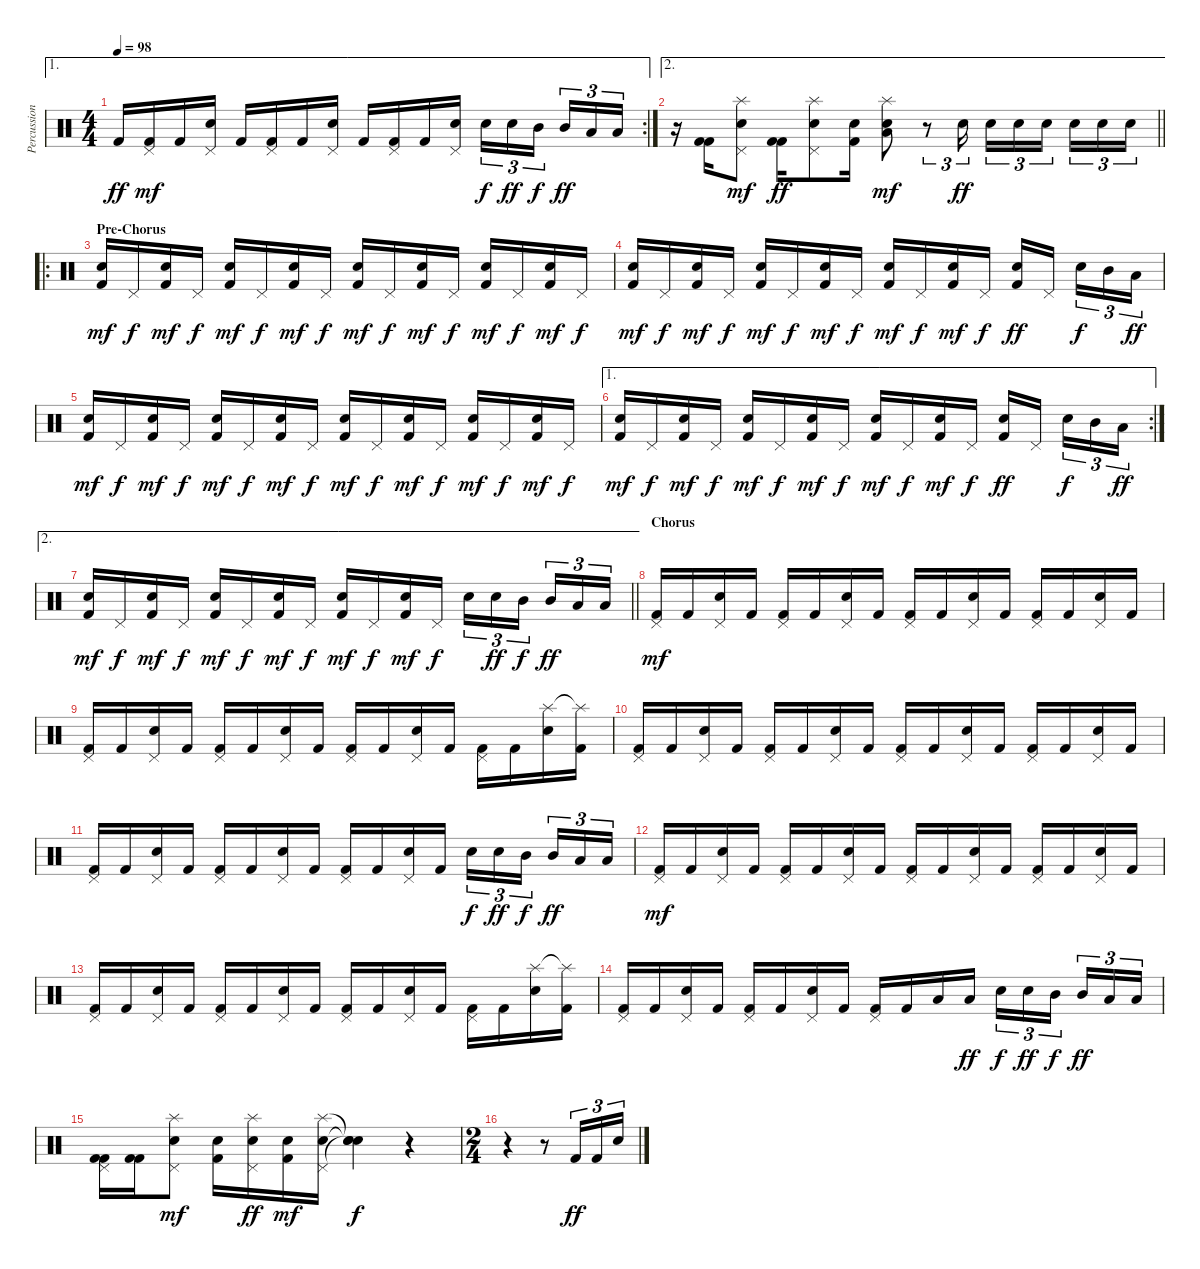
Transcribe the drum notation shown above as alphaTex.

\track ("Percussion" "Percussion") {instrument percussion}
\staff {score}
\articulation defaults
\ae 1
\rc 2
\ts (4 4)
\tempo 98
\clef neutral
\ks c "Kick (hit) 2".16{dy ff}
("Pedal Hi-Hat (hit)" "Kick (hit) 2").16{dy mf} "Kick (hit) 2".16 ("Pedal Hi-Hat (hit)" "Snare (hit) 2").16 "Kick (hit) 2".16 ("Pedal Hi-Hat (hit)" "Kick (hit) 2").16 "Kick (hit) 2".16 ("Pedal Hi-Hat (hit)" "Snare (hit) 2").16 "Kick (hit) 2".16 ("Pedal Hi-Hat (hit)" "Kick (hit) 2").16 "Kick (hit) 2".16 ("Pedal Hi-Hat (hit)" "Snare (hit) 2").16 "Snare (hit) 2".16{tu (3 2) dy f} "Snare (hit) 2".16{tu (3 2) dy ff} "Mid Tom (hit)".16{tu (3 2) dy f beam splitsecondary} "Mid Tom (hit)".16{tu (3 2) dy ff} "Low Tom (hit)".16{tu (3 2)} "Low Tom (hit)".16{tu (3 2)} |
\ae 2
\barLineRight lightlight
r.16 ("Kick (hit) 2" "Kick (hit) 2").16 ("Splash (hit)" "Pedal Hi-Hat (hit)" "Snare (hit) 2").8{dy mf} ("Kick (hit) 2" "Kick (hit) 2").16{dy ff} ("Splash (hit)" "Pedal Hi-Hat (hit)" "Snare (hit) 2").8 ("Kick (hit) 2" "Snare (hit) 2").16 ("Splash (hit)" "Low Floor Tom (hit)" "Snare (hit) 2").8{dy mf} r.8{tu (3 2)} "Snare (hit) 2".16{tu (3 2) dy ff} "Snare (hit) 2".16{tu (3 2)} "Snare (hit) 2".16{tu (3 2)} "Snare (hit) 2".16{tu (3 2) beam splitsecondary} "Snare (hit) 2".16{tu (3 2)} "Snare (hit) 2".16{tu (3 2)} "Snare (hit) 2".16{tu (3 2)} |
\ro
\section ("" "Pre-Chorus")
("Snare (hit) 2" "Kick (hit) 2").16{dy mf} "Pedal Hi-Hat (hit)".16{dy f} ("Snare (hit) 2" "Kick (hit) 2").16{dy mf} "Pedal Hi-Hat (hit)".16{dy f} ("Snare (hit) 2" "Kick (hit) 2").16{dy mf} "Pedal Hi-Hat (hit)".16{dy f} ("Snare (hit) 2" "Kick (hit) 2").16{dy mf} "Pedal Hi-Hat (hit)".16{dy f} ("Snare (hit) 2" "Kick (hit) 2").16{dy mf} "Pedal Hi-Hat (hit)".16{dy f} ("Snare (hit) 2" "Kick (hit) 2").16{dy mf} "Pedal Hi-Hat (hit)".16{dy f} ("Snare (hit) 2" "Kick (hit) 2").16{dy mf} "Pedal Hi-Hat (hit)".16{dy f} ("Snare (hit) 2" "Kick (hit) 2").16{dy mf} "Pedal Hi-Hat (hit)".16{dy f} |
("Snare (hit) 2" "Kick (hit) 2").16{dy mf} "Pedal Hi-Hat (hit)".16{dy f} ("Snare (hit) 2" "Kick (hit) 2").16{dy mf} "Pedal Hi-Hat (hit)".16{dy f} ("Snare (hit) 2" "Kick (hit) 2").16{dy mf} "Pedal Hi-Hat (hit)".16{dy f} ("Snare (hit) 2" "Kick (hit) 2").16{dy mf} "Pedal Hi-Hat (hit)".16{dy f} ("Snare (hit) 2" "Kick (hit) 2").16{dy mf} "Pedal Hi-Hat (hit)".16{dy f} ("Snare (hit) 2" "Kick (hit) 2").16{dy mf} "Pedal Hi-Hat (hit)".16{dy f} ("Snare (hit) 2" "Kick (hit) 2").16{dy ff} "Pedal Hi-Hat (hit)".16{beam splitsecondary} "Snare (hit) 2".16{tu (3 2) dy f} "Mid Tom (hit)".16{tu (3 2)} "Low Tom (hit)".16{tu (3 2) dy ff} |
("Snare (hit) 2" "Kick (hit) 2").16{dy mf} "Pedal Hi-Hat (hit)".16{dy f} ("Snare (hit) 2" "Kick (hit) 2").16{dy mf} "Pedal Hi-Hat (hit)".16{dy f} ("Snare (hit) 2" "Kick (hit) 2").16{dy mf} "Pedal Hi-Hat (hit)".16{dy f} ("Snare (hit) 2" "Kick (hit) 2").16{dy mf} "Pedal Hi-Hat (hit)".16{dy f} ("Snare (hit) 2" "Kick (hit) 2").16{dy mf} "Pedal Hi-Hat (hit)".16{dy f} ("Snare (hit) 2" "Kick (hit) 2").16{dy mf} "Pedal Hi-Hat (hit)".16{dy f} ("Snare (hit) 2" "Kick (hit) 2").16{dy mf} "Pedal Hi-Hat (hit)".16{dy f} ("Snare (hit) 2" "Kick (hit) 2").16{dy mf} "Pedal Hi-Hat (hit)".16{dy f} |
\ae 1
\rc 2
("Snare (hit) 2" "Kick (hit) 2").16{dy mf} "Pedal Hi-Hat (hit)".16{dy f} ("Snare (hit) 2" "Kick (hit) 2").16{dy mf} "Pedal Hi-Hat (hit)".16{dy f} ("Snare (hit) 2" "Kick (hit) 2").16{dy mf} "Pedal Hi-Hat (hit)".16{dy f} ("Snare (hit) 2" "Kick (hit) 2").16{dy mf} "Pedal Hi-Hat (hit)".16{dy f} ("Snare (hit) 2" "Kick (hit) 2").16{dy mf} "Pedal Hi-Hat (hit)".16{dy f} ("Snare (hit) 2" "Kick (hit) 2").16{dy mf} "Pedal Hi-Hat (hit)".16{dy f} ("Snare (hit) 2" "Kick (hit) 2").16{dy ff} "Pedal Hi-Hat (hit)".16{beam splitsecondary} "Snare (hit) 2".16{tu (3 2) dy f} "Mid Tom (hit)".16{tu (3 2)} "Low Tom (hit)".16{tu (3 2) dy ff} |
\ae 2
\barLineRight lightlight
("Snare (hit) 2" "Kick (hit) 2").16{dy mf} "Pedal Hi-Hat (hit)".16{dy f} ("Snare (hit) 2" "Kick (hit) 2").16{dy mf} "Pedal Hi-Hat (hit)".16{dy f} ("Snare (hit) 2" "Kick (hit) 2").16{dy mf} "Pedal Hi-Hat (hit)".16{dy f} ("Snare (hit) 2" "Kick (hit) 2").16{dy mf} "Pedal Hi-Hat (hit)".16{dy f} ("Snare (hit) 2" "Kick (hit) 2").16{dy mf} "Pedal Hi-Hat (hit)".16{dy f} ("Snare (hit) 2" "Kick (hit) 2").16{dy mf} "Pedal Hi-Hat (hit)".16{dy f} "Snare (hit) 2".16{tu (3 2)} "Snare (hit) 2".16{tu (3 2) dy ff} "Mid Tom (hit)".16{tu (3 2) dy f beam splitsecondary} "Mid Tom (hit)".16{tu (3 2) dy ff} "Low Tom (hit)".16{tu (3 2)} "Low Tom (hit)".16{tu (3 2)} |
\section ("" "Chorus")
("Pedal Hi-Hat (hit)" "Kick (hit) 2").16{dy mf} "Kick (hit) 2".16 ("Pedal Hi-Hat (hit)" "Snare (hit) 2").16 "Kick (hit) 2".16 ("Pedal Hi-Hat (hit)" "Kick (hit) 2").16 "Kick (hit) 2".16 ("Pedal Hi-Hat (hit)" "Snare (hit) 2").16 "Kick (hit) 2".16 ("Pedal Hi-Hat (hit)" "Kick (hit) 2").16 "Kick (hit) 2".16 ("Pedal Hi-Hat (hit)" "Snare (hit) 2").16 "Kick (hit) 2".16 ("Pedal Hi-Hat (hit)" "Kick (hit) 2").16 "Kick (hit) 2".16 ("Pedal Hi-Hat (hit)" "Snare (hit) 2").16 "Kick (hit) 2".16 |
("Pedal Hi-Hat (hit)" "Kick (hit) 2").16 "Kick (hit) 2".16 ("Pedal Hi-Hat (hit)" "Snare (hit) 2").16 "Kick (hit) 2".16 ("Pedal Hi-Hat (hit)" "Kick (hit) 2").16 "Kick (hit) 2".16 ("Pedal Hi-Hat (hit)" "Snare (hit) 2").16 "Kick (hit) 2".16 ("Pedal Hi-Hat (hit)" "Kick (hit) 2").16 "Kick (hit) 2".16 ("Pedal Hi-Hat (hit)" "Snare (hit) 2").16 "Kick (hit) 2".16 ("Pedal Hi-Hat (hit)" "Kick (hit) 2").16 "Kick (hit) 2".16 ("Splash (hit)" "Snare (hit) 2").16 ("Splash (hit)"{t} "Kick (hit) 2").16 |
("Pedal Hi-Hat (hit)" "Kick (hit) 2").16 "Kick (hit) 2".16 ("Pedal Hi-Hat (hit)" "Snare (hit) 2").16 "Kick (hit) 2".16 ("Pedal Hi-Hat (hit)" "Kick (hit) 2").16 "Kick (hit) 2".16 ("Pedal Hi-Hat (hit)" "Snare (hit) 2").16 "Kick (hit) 2".16 ("Pedal Hi-Hat (hit)" "Kick (hit) 2").16 "Kick (hit) 2".16 ("Pedal Hi-Hat (hit)" "Snare (hit) 2").16 "Kick (hit) 2".16 ("Pedal Hi-Hat (hit)" "Kick (hit) 2").16 "Kick (hit) 2".16 ("Pedal Hi-Hat (hit)" "Snare (hit) 2").16 "Kick (hit) 2".16 |
("Pedal Hi-Hat (hit)" "Kick (hit) 2").16 "Kick (hit) 2".16 ("Pedal Hi-Hat (hit)" "Snare (hit) 2").16 "Kick (hit) 2".16 ("Pedal Hi-Hat (hit)" "Kick (hit) 2").16 "Kick (hit) 2".16 ("Pedal Hi-Hat (hit)" "Snare (hit) 2").16 "Kick (hit) 2".16 ("Pedal Hi-Hat (hit)" "Kick (hit) 2").16 "Kick (hit) 2".16 ("Pedal Hi-Hat (hit)" "Snare (hit) 2").16 "Kick (hit) 2".16 "Snare (hit) 2".16{tu (3 2) dy f} "Snare (hit) 2".16{tu (3 2) dy ff} "Mid Tom (hit)".16{tu (3 2) dy f beam splitsecondary} "Mid Tom (hit)".16{tu (3 2) dy ff} "Low Tom (hit)".16{tu (3 2)} "Low Tom (hit)".16{tu (3 2)} |
("Pedal Hi-Hat (hit)" "Kick (hit) 2").16{dy mf} "Kick (hit) 2".16 ("Pedal Hi-Hat (hit)" "Snare (hit) 2").16 "Kick (hit) 2".16 ("Pedal Hi-Hat (hit)" "Kick (hit) 2").16 "Kick (hit) 2".16 ("Pedal Hi-Hat (hit)" "Snare (hit) 2").16 "Kick (hit) 2".16 ("Pedal Hi-Hat (hit)" "Kick (hit) 2").16 "Kick (hit) 2".16 ("Pedal Hi-Hat (hit)" "Snare (hit) 2").16 "Kick (hit) 2".16 ("Pedal Hi-Hat (hit)" "Kick (hit) 2").16 "Kick (hit) 2".16 ("Pedal Hi-Hat (hit)" "Snare (hit) 2").16 "Kick (hit) 2".16 |
("Pedal Hi-Hat (hit)" "Kick (hit) 2").16 "Kick (hit) 2".16 ("Pedal Hi-Hat (hit)" "Snare (hit) 2").16 "Kick (hit) 2".16 ("Pedal Hi-Hat (hit)" "Kick (hit) 2").16 "Kick (hit) 2".16 ("Pedal Hi-Hat (hit)" "Snare (hit) 2").16 "Kick (hit) 2".16 ("Pedal Hi-Hat (hit)" "Kick (hit) 2").16 "Kick (hit) 2".16 ("Pedal Hi-Hat (hit)" "Snare (hit) 2").16 "Kick (hit) 2".16 ("Pedal Hi-Hat (hit)" "Kick (hit) 2").16 "Kick (hit) 2".16 ("Splash (hit)" "Snare (hit) 2").16 ("Splash (hit)"{t} "Kick (hit) 2").16 |
("Pedal Hi-Hat (hit)" "Kick (hit) 2").16 "Kick (hit) 2".16 ("Pedal Hi-Hat (hit)" "Snare (hit) 2").16 "Kick (hit) 2".16 ("Pedal Hi-Hat (hit)" "Kick (hit) 2").16 "Kick (hit) 2".16 ("Pedal Hi-Hat (hit)" "Snare (hit) 2").16 "Kick (hit) 2".16 ("Pedal Hi-Hat (hit)" "Kick (hit) 2").16 "Kick (hit) 2".16 "Low Tom (hit)".16 "Low Tom (hit)".16{dy ff} "Snare (hit) 2".16{tu (3 2) dy f} "Snare (hit) 2".16{tu (3 2) dy ff} "Mid Tom (hit)".16{tu (3 2) dy f beam splitsecondary} "Mid Tom (hit)".16{tu (3 2) dy ff} "Low Tom (hit)".16{tu (3 2)} "Low Tom (hit)".16{tu (3 2)} |
("Pedal Hi-Hat (hit)" "Kick (hit) 2" "Kick (hit) 2").16 ("Kick (hit) 2" "Kick (hit) 2").16 ("Splash (hit)" "Pedal Hi-Hat (hit)" "Snare (hit) 2").8{dy mf} ("Snare (hit) 2" "Kick (hit) 2").16 ("Splash (hit)" "Pedal Hi-Hat (hit)" "Snare (hit) 2").16{dy ff} ("Snare (hit) 2" "Kick (hit) 2").16{dy mf} ("Splash (hit)" "Pedal Hi-Hat (hit)" "Snare (hit) 2").16 ("Snare (hit)"{t} "Snare (hit)"{t} "Snare (hit)"{t}).4{dy f} r.4 |
\ts (2 4)
r.4 r.8 "Kick (hit) 2".16{tu (3 2) dy ff} "Kick (hit) 2".16{tu (3 2)} "Snare (hit) 2".16{tu (3 2)}
